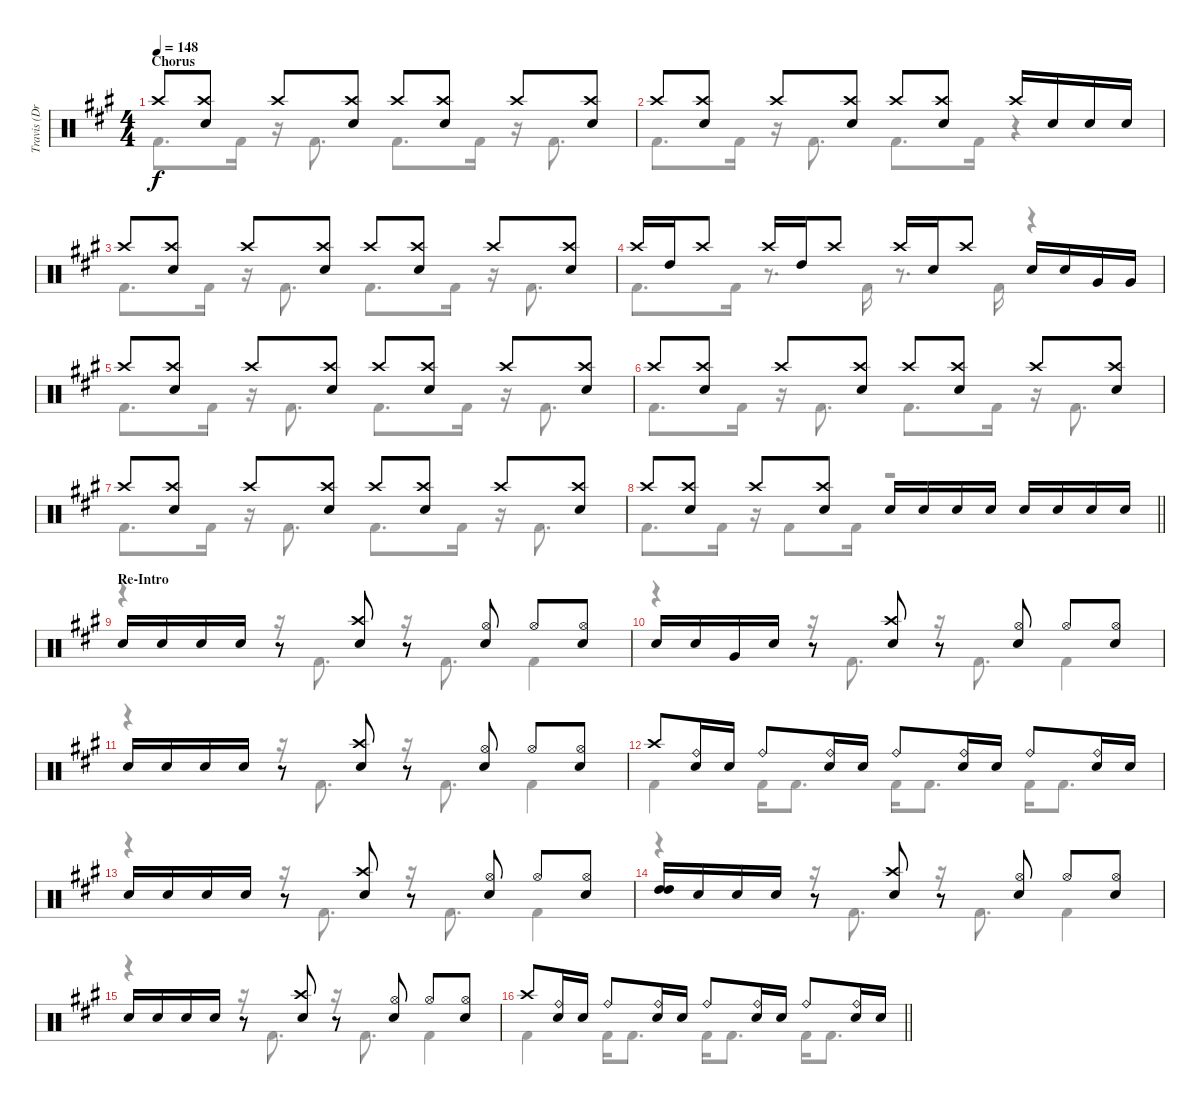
\track ("Travis (Drums)" "Travis (Dr") {instrument percussion}
\staff {score}
\articulation defaults
\voice
\ts (4 4)
\section ("" "Chorus")
\tempo 148
\clef neutral
\ks a "Crash high (hit)".8{dy f}
("Crash high (hit)" "Electric Snare (hit)").8 "Crash high (hit)".8 ("Crash high (hit)" "Electric Snare (hit)").8 "Crash high (hit)".8 ("Crash high (hit)" "Electric Snare (hit)").8 "Crash high (hit)".8 ("Crash high (hit)" "Electric Snare (hit)").8 |
"Crash high (hit)".8 ("Crash high (hit)" "Electric Snare (hit)").8 "Crash high (hit)".8 ("Crash high (hit)" "Electric Snare (hit)").8 "Crash high (hit)".8 ("Crash high (hit)" "Electric Snare (hit)").8 "Crash high (hit)".16 "Electric Snare (hit)".16 "Electric Snare (hit)".16 "Electric Snare (hit)".16 |
"Crash high (hit)".8 ("Crash high (hit)" "Electric Snare (hit)").8 "Crash high (hit)".8 ("Crash high (hit)" "Electric Snare (hit)").8 "Crash high (hit)".8 ("Crash high (hit)" "Electric Snare (hit)").8 "Crash high (hit)".8 ("Crash high (hit)" "Electric Snare (hit)").8 |
"Crash high (hit)".16 "High Tom (hit)".16 "Crash high (hit)".8 "Crash high (hit)".16 "High Tom (hit)".16 "Crash high (hit)".8 "Crash high (hit)".16 "Electric Snare (hit)".16 "Crash high (hit)".8 "Electric Snare (hit)".16 "Electric Snare (hit)".16 "Very Low Tom (hit)".16 "Very Low Tom (hit)".16 |
"Crash high (hit)".8 ("Crash high (hit)" "Electric Snare (hit)").8 "Crash high (hit)".8 ("Crash high (hit)" "Electric Snare (hit)").8 "Crash high (hit)".8 ("Crash high (hit)" "Electric Snare (hit)").8 "Crash high (hit)".8 ("Crash high (hit)" "Electric Snare (hit)").8 |
"Crash high (hit)".8 ("Crash high (hit)" "Electric Snare (hit)").8 "Crash high (hit)".8 ("Crash high (hit)" "Electric Snare (hit)").8 "Crash high (hit)".8 ("Crash high (hit)" "Electric Snare (hit)").8 "Crash high (hit)".8 ("Crash high (hit)" "Electric Snare (hit)").8 |
"Crash high (hit)".8 ("Crash high (hit)" "Electric Snare (hit)").8 "Crash high (hit)".8 ("Crash high (hit)" "Electric Snare (hit)").8 "Crash high (hit)".8 ("Crash high (hit)" "Electric Snare (hit)").8 "Crash high (hit)".8 ("Crash high (hit)" "Electric Snare (hit)").8 |
\barLineRight lightlight "Crash high (hit)".8
("Crash high (hit)" "Electric Snare (hit)").8 "Crash high (hit)".8 ("Crash high (hit)" "Electric Snare (hit)").8 "Electric Snare (hit)".16 "Electric Snare (hit)".16 "Electric Snare (hit)".16 "Electric Snare (hit)".16 "Electric Snare (hit)".16 "Electric Snare (hit)".16 "Electric Snare (hit)".16 "Electric Snare (hit)".16 |
\section ("" "Re-Intro")
"Electric Snare (hit)".16 "Electric Snare (hit)".16 "Electric Snare (hit)".16 "Electric Snare (hit)".16 r.8 ("Crash high (hit)" "Electric Snare (hit)").8 r.8 ("Electric Snare (hit)" "Hi-Hat (open)").8 "Hi-Hat (open)".8 ("Electric Snare (hit)" "Hi-Hat (open)").8 |
"Electric Snare (hit)".16 "Electric Snare (hit)".16 "Very Low Tom (hit)".16 "Electric Snare (hit)".16 r.8 ("Crash high (hit)" "Electric Snare (hit)").8 r.8 ("Electric Snare (hit)" "Hi-Hat (open)").8 "Hi-Hat (open)".8 ("Electric Snare (hit)" "Hi-Hat (open)").8 |
"Electric Snare (hit)".16 "Electric Snare (hit)".16 "Electric Snare (hit)".16 "Electric Snare (hit)".16 r.8 ("Crash high (hit)" "Electric Snare (hit)").8 r.8 ("Electric Snare (hit)" "Hi-Hat (open)").8 "Hi-Hat (open)".8 ("Electric Snare (hit)" "Hi-Hat (open)").8 |
"Crash high (hit)".8 ("Ride (bell)" "Electric Snare (hit)").16 "Electric Snare (hit)".16 "Ride (bell)".8 ("Ride (bell)" "Electric Snare (hit)").16 "Electric Snare (hit)".16 "Ride (bell)".8 ("Ride (bell)" "Electric Snare (hit)").16 "Electric Snare (hit)".16 "Ride (bell)".8 ("Ride (bell)" "Electric Snare (hit)").16 "Electric Snare (hit)".16 |
"Electric Snare (hit)".16 "Electric Snare (hit)".16 "Electric Snare (hit)".16 "Electric Snare (hit)".16 r.8 ("Crash high (hit)" "Electric Snare (hit)").8 r.8 ("Electric Snare (hit)" "Hi-Hat (open)").8 "Hi-Hat (open)".8 ("Electric Snare (hit)" "Hi-Hat (open)").8 |
("High Tom (hit)" "High Tom (hit)").16 "Electric Snare (hit)".16 "Electric Snare (hit)".16 "Electric Snare (hit)".16 r.8 ("Crash high (hit)" "Electric Snare (hit)").8 r.8 ("Electric Snare (hit)" "Hi-Hat (open)").8 "Hi-Hat (open)".8 ("Electric Snare (hit)" "Hi-Hat (open)").8 |
"Electric Snare (hit)".16 "Electric Snare (hit)".16 "Electric Snare (hit)".16 "Electric Snare (hit)".16 r.8 ("Crash high (hit)" "Electric Snare (hit)").8 r.8 ("Electric Snare (hit)" "Hi-Hat (open)").8 "Hi-Hat (open)".8 ("Electric Snare (hit)" "Hi-Hat (open)").8 |
\barLineRight lightlight "Crash high (hit)".8
("Ride (bell)" "Electric Snare (hit)").16 "Electric Snare (hit)".16 "Ride (bell)".8 ("Ride (bell)" "Electric Snare (hit)").16 "Electric Snare (hit)".16 "Ride (bell)".8 ("Ride (bell)" "Electric Snare (hit)").16 "Electric Snare (hit)".16 "Ride (bell)".8 ("Ride (bell)" "Electric Snare (hit)").16 "Electric Snare (hit)".16
\voice
\clef neutral
\ottava regular
\simile none
\ks a "Kick (hit) 2".8{d dy f} "Kick (hit) 2".16
r.16 "Kick (hit) 2".8{d} "Kick (hit) 2".8{d} "Kick (hit) 2".16 r.16 "Kick (hit) 2".8{d} |
"Kick (hit) 2".8{d} "Kick (hit) 2".16 r.16 "Kick (hit) 2".8{d} "Kick (hit) 2".8{d} "Kick (hit) 2".16 r.4 |
"Kick (hit) 2".8{d} "Kick (hit) 2".16 r.16 "Kick (hit) 2".8{d} "Kick (hit) 2".8{d} "Kick (hit) 2".16 r.16 "Kick (hit) 2".8{d} |
"Kick (hit) 2".8{d} "Kick (hit) 2".16 r.8{d} "Kick (hit) 2".16 r.8{d} "Kick (hit) 2".16 r.4 |
"Kick (hit) 2".8{d} "Kick (hit) 2".16 r.16 "Kick (hit) 2".8{d} "Kick (hit) 2".8{d} "Kick (hit) 2".16 r.16 "Kick (hit) 2".8{d} |
"Kick (hit) 2".8{d} "Kick (hit) 2".16 r.16 "Kick (hit) 2".8{d} "Kick (hit) 2".8{d} "Kick (hit) 2".16 r.16 "Kick (hit) 2".8{d} |
"Kick (hit) 2".8{d} "Kick (hit) 2".16 r.16 "Kick (hit) 2".8{d} "Kick (hit) 2".8{d} "Kick (hit) 2".16 r.16 "Kick (hit) 2".8{d} |
\barLineRight lightlight "Kick (hit) 2".8{d} "Kick (hit) 2".16
r.16 "Kick (hit) 2".8 "Kick (hit) 2".16 r.2 |
r.4 r.16 "Kick (hit) 2".8{d} r.16 "Kick (hit) 2".8{d} "Kick (hit) 2".4 |
r.4 r.16 "Kick (hit) 2".8{d} r.16 "Kick (hit) 2".8{d} "Kick (hit) 2".4 |
r.4 r.16 "Kick (hit) 2".8{d} r.16 "Kick (hit) 2".8{d} "Kick (hit) 2".4 |
"Kick (hit) 2".4 "Kick (hit) 2".16 "Kick (hit) 2".8{d} "Kick (hit) 2".16 "Kick (hit) 2".8{d} "Kick (hit) 2".16 "Kick (hit) 2".8{d} |
r.4 r.16 "Kick (hit) 2".8{d} r.16 "Kick (hit) 2".8{d} "Kick (hit) 2".4 |
r.4 r.16 "Kick (hit) 2".8{d} r.16 "Kick (hit) 2".8{d} "Kick (hit) 2".4 |
r.4 r.16 "Kick (hit) 2".8{d} r.16 "Kick (hit) 2".8{d} "Kick (hit) 2".4 |
\barLineRight lightlight "Kick (hit) 2".4 "Kick (hit) 2".16 "Kick (hit) 2".8{d} "Kick (hit) 2".16 "Kick (hit) 2".8{d} "Kick (hit) 2".16 "Kick (hit) 2".8{d}
